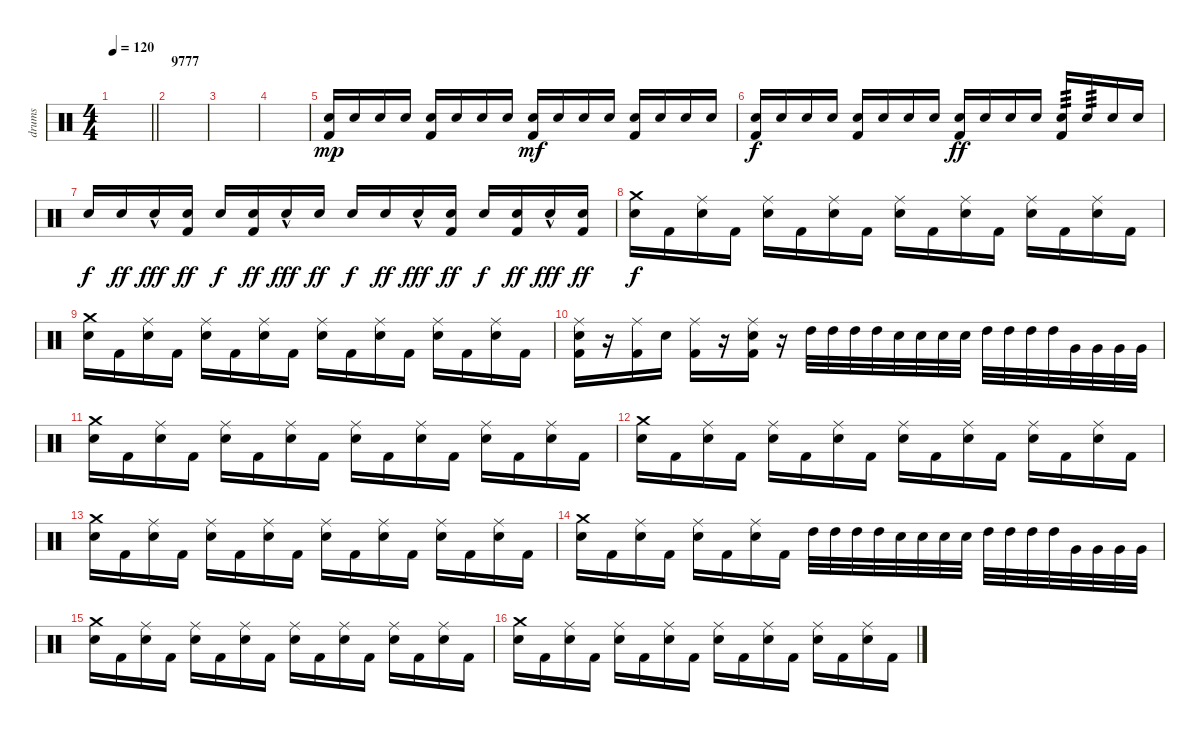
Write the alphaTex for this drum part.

\track ("drums" "drums") {instrument percussion}
\staff {score}
\articulation defaults
\ts (4 4)
\tempo 120
\clef neutral
\barLineRight lightlight
\ks c
|
\section ("" "9777")
|
|
|
("Snare (hit) 2" "Kick (hit) 2").16{dy mp} "Snare (hit) 2".16 "Snare (hit) 2".16 "Snare (hit) 2".16 ("Snare (hit) 2" "Kick (hit) 2").16 "Snare (hit) 2".16 "Snare (hit) 2".16 "Snare (hit) 2".16 ("Snare (hit) 2" "Kick (hit) 2").16{dy mf} "Snare (hit) 2".16 "Snare (hit) 2".16 "Snare (hit) 2".16 ("Snare (hit) 2" "Kick (hit) 2").16 "Snare (hit) 2".16 "Snare (hit) 2".16 "Snare (hit) 2".16 |
("Snare (hit) 2" "Kick (hit) 2").16{dy f} "Snare (hit) 2".16 "Snare (hit) 2".16 "Snare (hit) 2".16 ("Snare (hit) 2" "Kick (hit) 2").16 "Snare (hit) 2".16 "Snare (hit) 2".16 "Snare (hit) 2".16 ("Snare (hit) 2" "Kick (hit) 2").16{dy ff} "Snare (hit) 2".16 "Snare (hit) 2".16 "Snare (hit) 2".16 ("Snare (hit) 2" "Kick (hit) 2").16{tp 3} "Snare (hit) 2".16{tp 3} "Snare (hit) 2".16 "Snare (hit) 2".16 |
"Snare (hit) 2".16{dy f} "Snare (hit) 2".16{dy ff} "Snare (hit) 2"{hac}.16{dy fff} ("Snare (hit) 2" "Kick (hit) 2").16{dy ff} "Snare (hit) 2".16{dy f} ("Snare (hit) 2" "Kick (hit) 2").16{dy ff} "Snare (hit) 2"{hac}.16{dy fff} "Snare (hit) 2".16{dy ff} "Snare (hit) 2".16{dy f} "Snare (hit) 2".16{dy ff} "Snare (hit) 2"{hac}.16{dy fff} ("Snare (hit) 2" "Kick (hit) 2").16{dy ff} "Snare (hit) 2".16{dy f} ("Snare (hit) 2" "Kick (hit) 2").16{dy ff} "Snare (hit) 2"{hac}.16{dy fff} ("Snare (hit) 2" "Kick (hit) 2").16{dy ff} |
("Crash medium (hit)" "Snare (hit) 2").16{dy f} "Kick (hit) 2".16 ("Ride (middle)" "Snare (hit) 2").16 "Kick (hit) 2".16 ("Ride (middle)" "Snare (hit) 2").16 "Kick (hit) 2".16 ("Ride (middle)" "Snare (hit) 2").16 "Kick (hit) 2".16 ("Ride (middle)" "Snare (hit) 2").16 "Kick (hit) 2".16 ("Ride (middle)" "Snare (hit) 2").16 "Kick (hit) 2".16 ("Ride (middle)" "Snare (hit) 2").16 "Kick (hit) 2".16 ("Ride (middle)" "Snare (hit) 2").16 "Kick (hit) 2".16 |
("Crash medium (hit)" "Snare (hit) 2").16 "Kick (hit) 2".16 ("Ride (middle)" "Snare (hit) 2").16 "Kick (hit) 2".16 ("Ride (middle)" "Snare (hit) 2").16 "Kick (hit) 2".16 ("Ride (middle)" "Snare (hit) 2").16 "Kick (hit) 2".16 ("Ride (middle)" "Snare (hit) 2").16 "Kick (hit) 2".16 ("Ride (middle)" "Snare (hit) 2").16 "Kick (hit) 2".16 ("Ride (middle)" "Snare (hit) 2").16 "Kick (hit) 2".16 ("Ride (middle)" "Snare (hit) 2").16 "Kick (hit) 2".16 |
("Ride (middle)" "Snare (hit) 2" "Kick (hit) 2").16 r.16 ("Ride (middle)" "Kick (hit) 2").16 "Snare (hit) 2".16 ("Ride (middle)" "Kick (hit) 2").16 r.16 ("Ride (middle)" "Snare (hit) 2" "Kick (hit) 2").16 r.16 "High Tom (hit)".32 "High Tom (hit)".32 "High Tom (hit)".32 "High Tom (hit)".32 "Snare (hit) 2".32 "Snare (hit) 2".32 "Snare (hit) 2".32 "Snare (hit) 2".32 "High Tom (hit)".32 "High Tom (hit)".32 "High Tom (hit)".32 "High Tom (hit)".32 "Very Low Tom (hit)".32 "Very Low Tom (hit)".32 "Very Low Tom (hit)".32 "Very Low Tom (hit)".32 |
("Crash medium (hit)" "Snare (hit) 2").16 "Kick (hit) 2".16 ("Ride (middle)" "Snare (hit) 2").16 "Kick (hit) 2".16 ("Ride (middle)" "Snare (hit) 2").16 "Kick (hit) 2".16 ("Ride (middle)" "Snare (hit) 2").16 "Kick (hit) 2".16 ("Ride (middle)" "Snare (hit) 2").16 "Kick (hit) 2".16 ("Ride (middle)" "Snare (hit) 2").16 "Kick (hit) 2".16 ("Ride (middle)" "Snare (hit) 2").16 "Kick (hit) 2".16 ("Ride (middle)" "Snare (hit) 2").16 "Kick (hit) 2".16 |
("Crash medium (hit)" "Snare (hit) 2").16 "Kick (hit) 2".16 ("Ride (middle)" "Snare (hit) 2").16 "Kick (hit) 2".16 ("Ride (middle)" "Snare (hit) 2").16 "Kick (hit) 2".16 ("Ride (middle)" "Snare (hit) 2").16 "Kick (hit) 2".16 ("Ride (middle)" "Snare (hit) 2").16 "Kick (hit) 2".16 ("Ride (middle)" "Snare (hit) 2").16 "Kick (hit) 2".16 ("Ride (middle)" "Snare (hit) 2").16 "Kick (hit) 2".16 ("Ride (middle)" "Snare (hit) 2").16 "Kick (hit) 2".16 |
("Crash medium (hit)" "Snare (hit) 2").16 "Kick (hit) 2".16 ("Ride (middle)" "Snare (hit) 2").16 "Kick (hit) 2".16 ("Ride (middle)" "Snare (hit) 2").16 "Kick (hit) 2".16 ("Ride (middle)" "Snare (hit) 2").16 "Kick (hit) 2".16 ("Ride (middle)" "Snare (hit) 2").16 "Kick (hit) 2".16 ("Ride (middle)" "Snare (hit) 2").16 "Kick (hit) 2".16 ("Ride (middle)" "Snare (hit) 2").16 "Kick (hit) 2".16 ("Ride (middle)" "Snare (hit) 2").16 "Kick (hit) 2".16 |
("Crash medium (hit)" "Snare (hit) 2").16 "Kick (hit) 2".16 ("Ride (middle)" "Snare (hit) 2").16 "Kick (hit) 2".16 ("Ride (middle)" "Snare (hit) 2").16 "Kick (hit) 2".16 ("Ride (middle)" "Snare (hit) 2").16 "Kick (hit) 2".16 "High Tom (hit)".32 "High Tom (hit)".32 "High Tom (hit)".32 "High Tom (hit)".32 "Snare (hit) 2".32 "Snare (hit) 2".32 "Snare (hit) 2".32 "Snare (hit) 2".32 "High Tom (hit)".32 "High Tom (hit)".32 "High Tom (hit)".32 "High Tom (hit)".32 "Very Low Tom (hit)".32 "Very Low Tom (hit)".32 "Very Low Tom (hit)".32 "Very Low Tom (hit)".32 |
("Crash medium (hit)" "Snare (hit) 2").16 "Kick (hit) 2".16 ("Ride (middle)" "Snare (hit) 2").16 "Kick (hit) 2".16 ("Ride (middle)" "Snare (hit) 2").16 "Kick (hit) 2".16 ("Ride (middle)" "Snare (hit) 2").16 "Kick (hit) 2".16 ("Ride (middle)" "Snare (hit) 2").16 "Kick (hit) 2".16 ("Ride (middle)" "Snare (hit) 2").16 "Kick (hit) 2".16 ("Ride (middle)" "Snare (hit) 2").16 "Kick (hit) 2".16 ("Ride (middle)" "Snare (hit) 2").16 "Kick (hit) 2".16 |
("Crash medium (hit)" "Snare (hit) 2").16 "Kick (hit) 2".16 ("Ride (middle)" "Snare (hit) 2").16 "Kick (hit) 2".16 ("Ride (middle)" "Snare (hit) 2").16 "Kick (hit) 2".16 ("Ride (middle)" "Snare (hit) 2").16 "Kick (hit) 2".16 ("Ride (middle)" "Snare (hit) 2").16 "Kick (hit) 2".16 ("Ride (middle)" "Snare (hit) 2").16 "Kick (hit) 2".16 ("Ride (middle)" "Snare (hit) 2").16 "Kick (hit) 2".16 ("Ride (middle)" "Snare (hit) 2").16 "Kick (hit) 2".16
